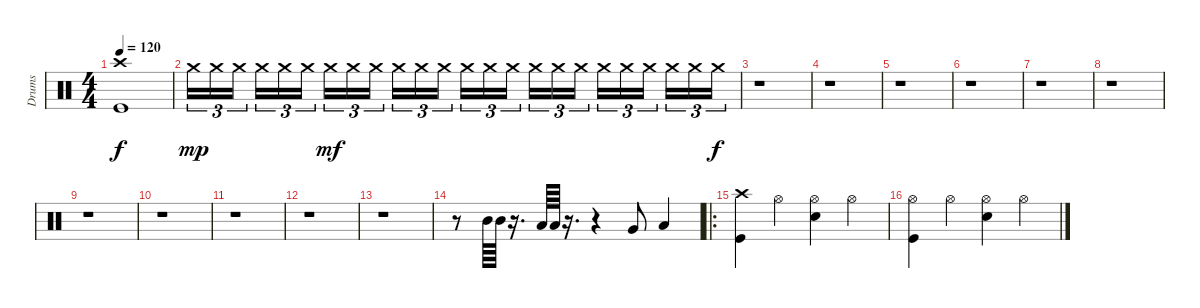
\track ("Drums" "Drums") {instrument percussion}
\staff {score}
\articulation defaults
\ts (4 4)
\tempo 120
\clef neutral
\ks c
("Crash high (hit)" "Kick (hit)").1{dy f volume 5} |
"Crash medium (hit)".16{tu (3 2) dy mp volume 16} "Crash medium (hit)".16{tu (3 2)} "Crash medium (hit)".16{tu (3 2)} "Crash medium (hit)".16{tu (3 2)} "Crash medium (hit)".16{tu (3 2)} "Crash medium (hit)".16{tu (3 2)} "Crash medium (hit)".16{tu (3 2) dy mf} "Crash medium (hit)".16{tu (3 2)} "Crash medium (hit)".16{tu (3 2)} "Crash medium (hit)".16{tu (3 2)} "Crash medium (hit)".16{tu (3 2)} "Crash medium (hit)".16{tu (3 2)} "Crash medium (hit)".16{tu (3 2)} "Crash medium (hit)".16{tu (3 2)} "Crash medium (hit)".16{tu (3 2)} "Crash medium (hit)".16{tu (3 2)} "Crash medium (hit)".16{tu (3 2)} "Crash medium (hit)".16{tu (3 2)} "Crash medium (hit)".16{tu (3 2)} "Crash medium (hit)".16{tu (3 2)} "Crash medium (hit)".16{tu (3 2)} "Crash medium (hit)".16{tu (3 2)} "Crash medium (hit)".16{tu (3 2)} "Crash medium (hit)".16{tu (3 2) dy f} |
r.1 |
r.1 |
r.1 |
r.1 |
r.1 |
r.1 |
r.1 |
r.1 |
r.1 |
r.1 |
r.1 |
r.8 "Mid Tom (hit)".64 "Mid Tom (hit)".64 r.16{d} "Low Tom (hit)".64 "Low Tom (hit)".64 r.16{d} r.4 "Very Low Tom (hit)".8 "Low Floor Tom (hit)".4 |
\ro
("Crash high (hit)" "Kick (hit)").4 "Hi-Hat (open)".4 ("Hi-Hat (open)" "Snare (hit) 2").4 "Hi-Hat (open)".4 |
("Hi-Hat (open)" "Kick (hit)").4 "Hi-Hat (open)".4 ("Hi-Hat (open)" "Snare (hit) 2").4 "Hi-Hat (open)".4
